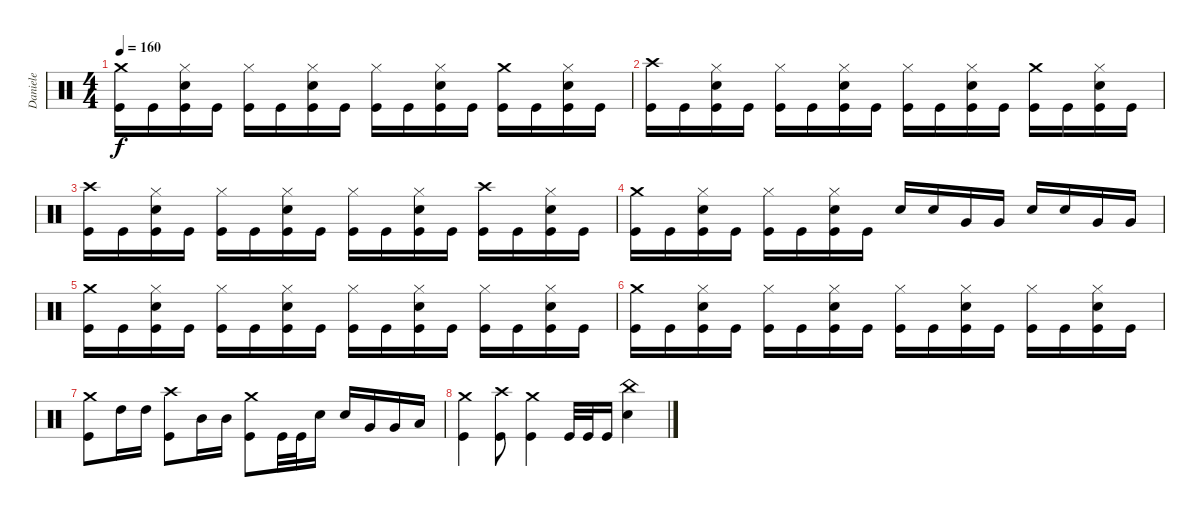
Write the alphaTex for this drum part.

\track ("Daniele" "Daniele") {instrument percussion}
\staff {score}
\articulation defaults
\ts (4 4)
\tempo 160
\clef neutral
\ks c
("Kick (hit)" "Crash medium (hit)").16{dy f} "Kick (hit)".16 ("Kick (hit)" "Electric Snare (hit)" "Hi-Hat (closed)").16 "Kick (hit)".16 ("Kick (hit)" "Hi-Hat (closed)").16 "Kick (hit)".16 ("Kick (hit)" "Electric Snare (hit)" "Hi-Hat (closed)").16 "Kick (hit)".16 ("Kick (hit)" "Hi-Hat (closed)").16 "Kick (hit)".16 ("Kick (hit)" "Electric Snare (hit)" "Hi-Hat (closed)").16 "Kick (hit)".16 ("Kick (hit)" "Crash medium (hit)").16 "Kick (hit)".16 ("Kick (hit)" "Electric Snare (hit)" "Hi-Hat (closed)").16 "Kick (hit)".16 |
("Kick (hit)" "Crash high (hit)").16 "Kick (hit)".16 ("Kick (hit)" "Electric Snare (hit)" "Hi-Hat (closed)").16 "Kick (hit)".16 ("Kick (hit)" "Hi-Hat (closed)").16 "Kick (hit)".16 ("Kick (hit)" "Electric Snare (hit)" "Hi-Hat (closed)").16 "Kick (hit)".16 ("Kick (hit)" "Hi-Hat (closed)").16 "Kick (hit)".16 ("Kick (hit)" "Electric Snare (hit)" "Hi-Hat (closed)").16 "Kick (hit)".16 ("Kick (hit)" "Crash medium (hit)").16 "Kick (hit)".16 ("Kick (hit)" "Electric Snare (hit)" "Hi-Hat (closed)").16 "Kick (hit)".16 |
("Kick (hit)" "Crash high (hit)").16 "Kick (hit)".16 ("Kick (hit)" "Electric Snare (hit)" "Hi-Hat (closed)").16 "Kick (hit)".16 ("Kick (hit)" "Hi-Hat (closed)").16 "Kick (hit)".16 ("Kick (hit)" "Electric Snare (hit)" "Hi-Hat (closed)").16 "Kick (hit)".16 ("Kick (hit)" "Hi-Hat (closed)").16 "Kick (hit)".16 ("Kick (hit)" "Electric Snare (hit)" "Hi-Hat (closed)").16 "Kick (hit)".16 ("Kick (hit)" "Crash high (hit)").16 "Kick (hit)".16 ("Kick (hit)" "Electric Snare (hit)" "Hi-Hat (closed)").16 "Kick (hit)".16 |
("Kick (hit)" "Crash medium (hit)").16 "Kick (hit)".16 ("Kick (hit)" "Electric Snare (hit)" "Hi-Hat (closed)").16 "Kick (hit)".16 ("Kick (hit)" "Hi-Hat (closed)").16 "Kick (hit)".16 ("Kick (hit)" "Electric Snare (hit)" "Hi-Hat (closed)").16 "Kick (hit)".16 "Electric Snare (hit)".16 "Electric Snare (hit)".16 "Very Low Tom (hit)".16 "Very Low Tom (hit)".16 "Electric Snare (hit)".16 "Electric Snare (hit)".16 "Very Low Tom (hit)".16 "Very Low Tom (hit)".16 |
("Kick (hit)" "Crash medium (hit)").16 "Kick (hit)".16 ("Kick (hit)" "Electric Snare (hit)" "Hi-Hat (closed)").16 "Kick (hit)".16 ("Kick (hit)" "Hi-Hat (closed)").16 "Kick (hit)".16 ("Kick (hit)" "Electric Snare (hit)" "Hi-Hat (closed)").16 "Kick (hit)".16 ("Kick (hit)" "Hi-Hat (closed)").16 "Kick (hit)".16 ("Kick (hit)" "Electric Snare (hit)" "Hi-Hat (closed)").16 "Kick (hit)".16 ("Kick (hit)" "Hi-Hat (closed)").16 "Kick (hit)".16 ("Kick (hit)" "Electric Snare (hit)" "Hi-Hat (closed)").16 "Kick (hit)".16 |
("Kick (hit)" "Crash medium (hit)").16 "Kick (hit)".16 ("Kick (hit)" "Electric Snare (hit)" "Hi-Hat (closed)").16 "Kick (hit)".16 ("Kick (hit)" "Hi-Hat (closed)").16 "Kick (hit)".16 ("Kick (hit)" "Electric Snare (hit)" "Hi-Hat (closed)").16 "Kick (hit)".16 ("Kick (hit)" "Hi-Hat (closed)").16 "Kick (hit)".16 ("Kick (hit)" "Electric Snare (hit)" "Hi-Hat (closed)").16 "Kick (hit)".16 ("Kick (hit)" "Hi-Hat (closed)").16 "Kick (hit)".16 ("Kick (hit)" "Electric Snare (hit)" "Hi-Hat (closed)").16 "Kick (hit)".16 |
("Kick (hit)" "Crash medium (hit)").8 "High Tom (hit)".16 "High Tom (hit)".16 ("Kick (hit)" "Crash high (hit)").8 "Mid Tom (hit)".16 "Mid Tom (hit)".16 ("Kick (hit)" "Crash medium (hit)").8 "Kick (hit)".32 "Kick (hit)".32 "Electric Snare (hit)".16 "Electric Snare (hit)".16 "Very Low Tom (hit)".16 "Very Low Tom (hit)".16 "Low Floor Tom (hit)".16 |
("Kick (hit)" "Crash medium (hit)").4 ("Kick (hit)" "Crash high (hit)").8 ("Kick (hit)" "Crash medium (hit)").4 "Kick (hit)".32 "Kick (hit)".32 "Kick (hit)".16 ("Electric Snare (hit)" "China (hit)").4
